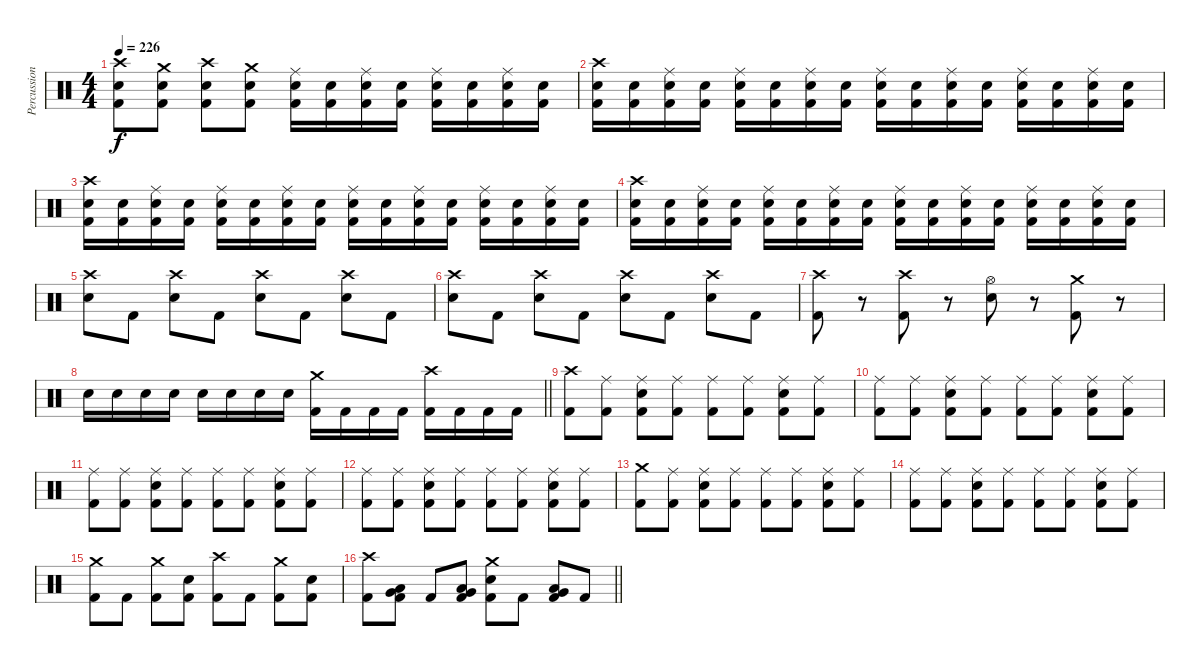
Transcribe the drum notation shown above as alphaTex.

\track ("Percussion" "Percussion") {instrument percussion}
\staff {score}
\articulation defaults
\ts (4 4)
\tempo 226
\clef neutral
\ks c
("Crash high (hit)" "Snare (hit) 2" "Kick (hit) 2").8{dy f} ("Crash medium (hit)" "Snare (hit) 2" "Kick (hit) 2").8 ("Crash high (hit)" "Snare (hit) 2" "Kick (hit) 2").8 ("Crash medium (hit)" "Snare (hit) 2" "Kick (hit) 2").8 ("Ride (middle)" "Snare (hit) 2" "Kick (hit) 2").16 ("Snare (hit) 2" "Kick (hit) 2").16 ("Ride (middle)" "Snare (hit) 2" "Kick (hit) 2").16 ("Snare (hit) 2" "Kick (hit) 2").16 ("Ride (middle)" "Snare (hit) 2" "Kick (hit) 2").16 ("Snare (hit) 2" "Kick (hit) 2").16 ("Ride (middle)" "Snare (hit) 2" "Kick (hit) 2").16 ("Snare (hit) 2" "Kick (hit) 2").16 |
("Crash high (hit)" "Snare (hit) 2" "Kick (hit) 2").16 ("Snare (hit) 2" "Kick (hit) 2").16 ("Ride (middle)" "Snare (hit) 2" "Kick (hit) 2").16 ("Snare (hit) 2" "Kick (hit) 2").16 ("Ride (middle)" "Snare (hit) 2" "Kick (hit) 2").16 ("Snare (hit) 2" "Kick (hit) 2").16 ("Ride (middle)" "Snare (hit) 2" "Kick (hit) 2").16 ("Snare (hit) 2" "Kick (hit) 2").16 ("Ride (middle)" "Snare (hit) 2" "Kick (hit) 2").16 ("Snare (hit) 2" "Kick (hit) 2").16 ("Ride (middle)" "Snare (hit) 2" "Kick (hit) 2").16 ("Snare (hit) 2" "Kick (hit) 2").16 ("Ride (middle)" "Snare (hit) 2" "Kick (hit) 2").16 ("Snare (hit) 2" "Kick (hit) 2").16 ("Ride (middle)" "Snare (hit) 2" "Kick (hit) 2").16 ("Snare (hit) 2" "Kick (hit) 2").16 |
("Crash high (hit)" "Snare (hit) 2" "Kick (hit) 2").16 ("Snare (hit) 2" "Kick (hit) 2").16 ("Ride (middle)" "Snare (hit) 2" "Kick (hit) 2").16 ("Snare (hit) 2" "Kick (hit) 2").16 ("Ride (middle)" "Snare (hit) 2" "Kick (hit) 2").16 ("Snare (hit) 2" "Kick (hit) 2").16 ("Ride (middle)" "Snare (hit) 2" "Kick (hit) 2").16 ("Snare (hit) 2" "Kick (hit) 2").16 ("Ride (middle)" "Snare (hit) 2" "Kick (hit) 2").16 ("Snare (hit) 2" "Kick (hit) 2").16 ("Ride (middle)" "Snare (hit) 2" "Kick (hit) 2").16 ("Snare (hit) 2" "Kick (hit) 2").16 ("Ride (middle)" "Snare (hit) 2" "Kick (hit) 2").16 ("Snare (hit) 2" "Kick (hit) 2").16 ("Ride (middle)" "Snare (hit) 2" "Kick (hit) 2").16 ("Snare (hit) 2" "Kick (hit) 2").16 |
("Crash high (hit)" "Snare (hit) 2" "Kick (hit) 2").16 ("Snare (hit) 2" "Kick (hit) 2").16 ("Ride (middle)" "Snare (hit) 2" "Kick (hit) 2").16 ("Snare (hit) 2" "Kick (hit) 2").16 ("Ride (middle)" "Snare (hit) 2" "Kick (hit) 2").16 ("Snare (hit) 2" "Kick (hit) 2").16 ("Ride (middle)" "Snare (hit) 2" "Kick (hit) 2").16 ("Snare (hit) 2" "Kick (hit) 2").16 ("Ride (middle)" "Snare (hit) 2" "Kick (hit) 2").16 ("Snare (hit) 2" "Kick (hit) 2").16 ("Ride (middle)" "Snare (hit) 2" "Kick (hit) 2").16 ("Snare (hit) 2" "Kick (hit) 2").16 ("Ride (middle)" "Snare (hit) 2" "Kick (hit) 2").16 ("Snare (hit) 2" "Kick (hit) 2").16 ("Ride (middle)" "Snare (hit) 2" "Kick (hit) 2").16 ("Snare (hit) 2" "Kick (hit) 2").16 |
("Crash high (hit)" "Snare (hit) 2").8 "Kick (hit) 2".8 ("Crash high (hit)" "Snare (hit) 2").8 "Kick (hit) 2".8 ("Crash high (hit)" "Snare (hit) 2").8 "Kick (hit) 2".8 ("Crash high (hit)" "Snare (hit) 2").8 "Kick (hit) 2".8 |
("Crash high (hit)" "Snare (hit) 2").8 "Kick (hit) 2".8 ("Crash high (hit)" "Snare (hit) 2").8 "Kick (hit) 2".8 ("Crash high (hit)" "Snare (hit) 2").8 "Kick (hit) 2".8 ("Crash high (hit)" "Snare (hit) 2").8 "Kick (hit) 2".8 |
("Crash high (hit)" "Kick (hit) 2").8 r.8 ("Crash high (hit)" "Kick (hit) 2").8 r.8 ("Hi-Hat (open)" "Snare (hit) 2").8 r.8 ("Crash medium (hit)" "Kick (hit) 2").8 r.8 |
\barLineRight lightlight "Snare (hit) 2".16 "Snare (hit) 2".16 "Snare (hit) 2".16 "Snare (hit) 2".16 "Snare (hit) 2".16 "Snare (hit) 2".16 "Snare (hit) 2".16 "Snare (hit) 2".16
("Crash medium (hit)" "Kick (hit) 2").16 "Kick (hit) 2".16 "Kick (hit) 2".16 "Kick (hit) 2".16 ("Crash high (hit)" "Kick (hit) 2").16 "Kick (hit) 2".16 "Kick (hit) 2".16 "Kick (hit) 2".16 |
\section ("" "")
("Crash high (hit)" "Kick (hit) 2").8 ("Ride (middle)" "Kick (hit) 2").8 ("Ride (middle)" "Snare (hit) 2" "Kick (hit) 2").8 ("Ride (middle)" "Kick (hit) 2").8 ("Ride (middle)" "Kick (hit) 2").8 ("Ride (middle)" "Kick (hit) 2").8 ("Ride (middle)" "Snare (hit) 2" "Kick (hit) 2").8 ("Ride (middle)" "Kick (hit) 2").8 |
("Ride (middle)" "Kick (hit) 2").8 ("Ride (middle)" "Kick (hit) 2").8 ("Ride (middle)" "Snare (hit) 2" "Kick (hit) 2").8 ("Ride (middle)" "Kick (hit) 2").8 ("Ride (middle)" "Kick (hit) 2").8 ("Ride (middle)" "Kick (hit) 2").8 ("Ride (middle)" "Snare (hit) 2" "Kick (hit) 2").8 ("Ride (middle)" "Kick (hit) 2").8 |
("Ride (middle)" "Kick (hit) 2").8 ("Ride (middle)" "Kick (hit) 2").8 ("Ride (middle)" "Snare (hit) 2" "Kick (hit) 2").8 ("Ride (middle)" "Kick (hit) 2").8 ("Ride (middle)" "Kick (hit) 2").8 ("Ride (middle)" "Kick (hit) 2").8 ("Ride (middle)" "Snare (hit) 2" "Kick (hit) 2").8 ("Ride (middle)" "Kick (hit) 2").8 |
("Ride (middle)" "Kick (hit) 2").8 ("Ride (middle)" "Kick (hit) 2").8 ("Ride (middle)" "Snare (hit) 2" "Kick (hit) 2").8 ("Ride (middle)" "Kick (hit) 2").8 ("Ride (middle)" "Kick (hit) 2").8 ("Ride (middle)" "Kick (hit) 2").8 ("Ride (middle)" "Snare (hit) 2" "Kick (hit) 2").8 ("Ride (middle)" "Kick (hit) 2").8 |
("Crash medium (hit)" "Kick (hit) 2").8 ("Ride (middle)" "Kick (hit) 2").8 ("Ride (middle)" "Snare (hit) 2" "Kick (hit) 2").8 ("Ride (middle)" "Kick (hit) 2").8 ("Ride (middle)" "Kick (hit) 2").8 ("Ride (middle)" "Kick (hit) 2").8 ("Ride (middle)" "Snare (hit) 2" "Kick (hit) 2").8 ("Ride (middle)" "Kick (hit) 2").8 |
("Ride (middle)" "Kick (hit) 2").8 ("Ride (middle)" "Kick (hit) 2").8 ("Ride (middle)" "Snare (hit) 2" "Kick (hit) 2").8 ("Ride (middle)" "Kick (hit) 2").8 ("Ride (middle)" "Kick (hit) 2").8 ("Ride (middle)" "Kick (hit) 2").8 ("Ride (middle)" "Snare (hit) 2" "Kick (hit) 2").8 ("Ride (middle)" "Kick (hit) 2").8 |
("Crash medium (hit)" "Kick (hit) 2").8 "Kick (hit) 2".8 ("Crash medium (hit)" "Kick (hit) 2").8 ("Snare (hit) 2" "Kick (hit) 2").8 ("Crash high (hit)" "Kick (hit) 2").8 "Kick (hit) 2".8 ("Crash medium (hit)" "Kick (hit) 2").8 ("Snare (hit) 2" "Kick (hit) 2").8 |
\barLineRight lightlight
("Crash high (hit)" "Kick (hit) 2").8 ("Very Low Tom (hit)" "Low Floor Tom (hit)" "Kick (hit) 2").8 "Kick (hit) 2".8 ("Very Low Tom (hit)" "Low Tom (hit)" "Kick (hit) 2").8 ("Crash medium (hit)" "Snare (hit) 2" "Kick (hit) 2").8 "Kick (hit) 2".8 ("Low Floor Tom (hit)" "Very Low Tom (hit)" "Kick (hit) 2").8 "Kick (hit) 2".8
